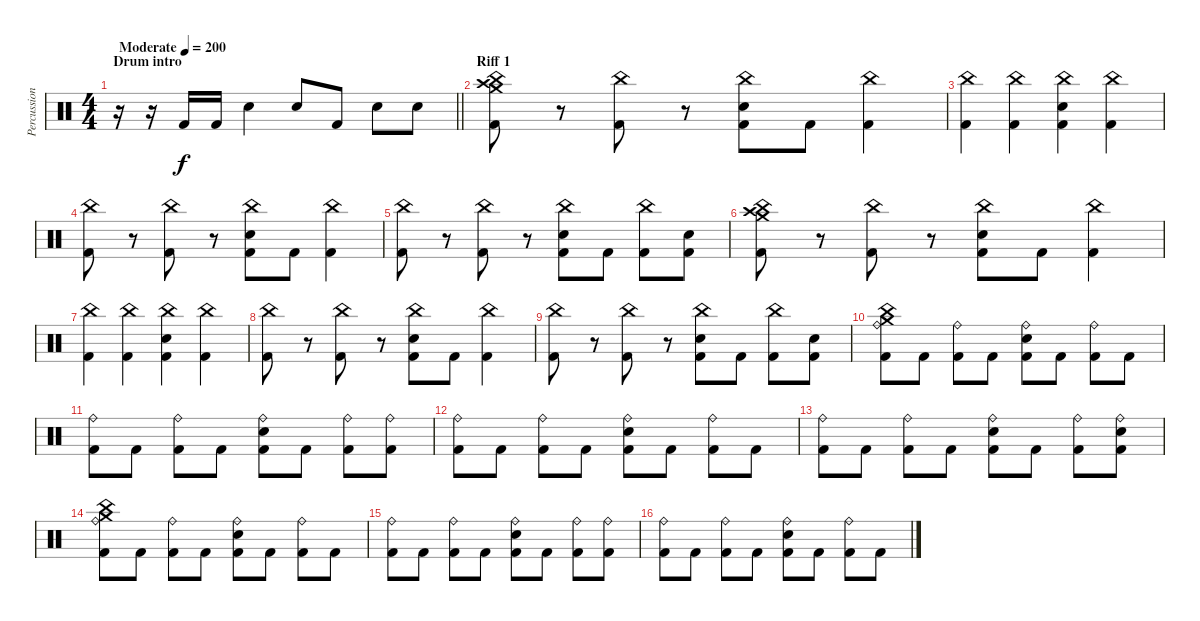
\track ("Percussion" "Percussion") {instrument percussion}
\staff {score}
\articulation defaults
\ts (4 4)
\section ("" "Drum intro")
\tempo (200 "Moderate")
\clef neutral
\barLineRight lightlight
\ks c
r.16{dy f} r.16 "Kick (hit) 2".16 "Kick (hit) 2".16 "Electric Snare (hit)".4 "Electric Snare (hit)".8 "Kick (hit) 2".8 "Electric Snare (hit)".8 "Electric Snare (hit)".8 |
\section ("" "Riff 1")
("Crash high (hit)" "China (hit)" "Crash medium (hit)" "Kick (hit) 2").8 r.8 ("China (hit)" "Kick (hit) 2").8 r.8 ("China (hit)" "Electric Snare (hit)" "Kick (hit) 2").8 "Kick (hit) 2".8 ("China (hit)" "Kick (hit) 2").4 |
("China (hit)" "Kick (hit) 2").4 ("China (hit)" "Kick (hit) 2").4 ("China (hit)" "Electric Snare (hit)" "Kick (hit) 2").4 ("China (hit)" "Kick (hit) 2").4 |
("China (hit)" "Kick (hit) 2").8 r.8 ("China (hit)" "Kick (hit) 2").8 r.8 ("China (hit)" "Electric Snare (hit)" "Kick (hit) 2").8 "Kick (hit) 2".8 ("China (hit)" "Kick (hit) 2").4 |
("China (hit)" "Kick (hit) 2").8 r.8 ("China (hit)" "Kick (hit) 2").8 r.8 ("China (hit)" "Electric Snare (hit)" "Kick (hit) 2").8 "Kick (hit) 2".8 ("China (hit)" "Kick (hit) 2").8 ("Electric Snare (hit)" "Kick (hit) 2").8 |
("Crash high (hit)" "China (hit)" "Crash medium (hit)" "Kick (hit) 2").8 r.8 ("China (hit)" "Kick (hit) 2").8 r.8 ("China (hit)" "Electric Snare (hit)" "Kick (hit) 2").8 "Kick (hit) 2".8 ("China (hit)" "Kick (hit) 2").4 |
("China (hit)" "Kick (hit) 2").4 ("China (hit)" "Kick (hit) 2").4 ("China (hit)" "Electric Snare (hit)" "Kick (hit) 2").4 ("China (hit)" "Kick (hit) 2").4 |
("China (hit)" "Kick (hit) 2").8 r.8 ("China (hit)" "Kick (hit) 2").8 r.8 ("China (hit)" "Electric Snare (hit)" "Kick (hit) 2").8 "Kick (hit) 2".8 ("China (hit)" "Kick (hit) 2").4 |
("China (hit)" "Kick (hit) 2").8 r.8 ("China (hit)" "Kick (hit) 2").8 r.8 ("China (hit)" "Electric Snare (hit)" "Kick (hit) 2").8 "Kick (hit) 2".8 ("China (hit)" "Kick (hit) 2").8 ("Electric Snare (hit)" "Kick (hit) 2").8 |
("China (hit)" "Ride (bell)" "Crash medium (hit)" "Kick (hit) 2").8 "Kick (hit) 2".8 ("Ride (bell)" "Kick (hit) 2").8 "Kick (hit) 2".8 ("Ride (bell)" "Electric Snare (hit)" "Kick (hit) 2").8 "Kick (hit) 2".8 ("Ride (bell)" "Kick (hit) 2").8 "Kick (hit) 2".8 |
("Ride (bell)" "Kick (hit) 2").8 "Kick (hit) 2".8 ("Ride (bell)" "Kick (hit) 2").8 "Kick (hit) 2".8 ("Ride (bell)" "Electric Snare (hit)" "Kick (hit) 2").8 "Kick (hit) 2".8 ("Ride (bell)" "Kick (hit) 2").8 ("Ride (bell)" "Kick (hit) 2").8 |
("Ride (bell)" "Kick (hit) 2").8 "Kick (hit) 2".8 ("Ride (bell)" "Kick (hit) 2").8 "Kick (hit) 2".8 ("Ride (bell)" "Electric Snare (hit)" "Kick (hit) 2").8 "Kick (hit) 2".8 ("Ride (bell)" "Kick (hit) 2").8 "Kick (hit) 2".8 |
("Ride (bell)" "Kick (hit) 2").8 "Kick (hit) 2".8 ("Ride (bell)" "Kick (hit) 2").8 "Kick (hit) 2".8 ("Ride (bell)" "Electric Snare (hit)" "Kick (hit) 2").8 "Kick (hit) 2".8 ("Ride (bell)" "Kick (hit) 2").8 ("Ride (bell)" "Electric Snare (hit)" "Kick (hit) 2").8 |
("China (hit)" "Ride (bell)" "Crash medium (hit)" "Kick (hit) 2").8 "Kick (hit) 2".8 ("Ride (bell)" "Kick (hit) 2").8 "Kick (hit) 2".8 ("Ride (bell)" "Electric Snare (hit)" "Kick (hit) 2").8 "Kick (hit) 2".8 ("Ride (bell)" "Kick (hit) 2").8 "Kick (hit) 2".8 |
("Ride (bell)" "Kick (hit) 2").8 "Kick (hit) 2".8 ("Ride (bell)" "Kick (hit) 2").8 "Kick (hit) 2".8 ("Ride (bell)" "Electric Snare (hit)" "Kick (hit) 2").8 "Kick (hit) 2".8 ("Ride (bell)" "Kick (hit) 2").8 ("Ride (bell)" "Kick (hit) 2").8 |
("Ride (bell)" "Kick (hit) 2").8 "Kick (hit) 2".8 ("Ride (bell)" "Kick (hit) 2").8 "Kick (hit) 2".8 ("Ride (bell)" "Electric Snare (hit)" "Kick (hit) 2").8 "Kick (hit) 2".8 ("Ride (bell)" "Kick (hit) 2").8 "Kick (hit) 2".8
